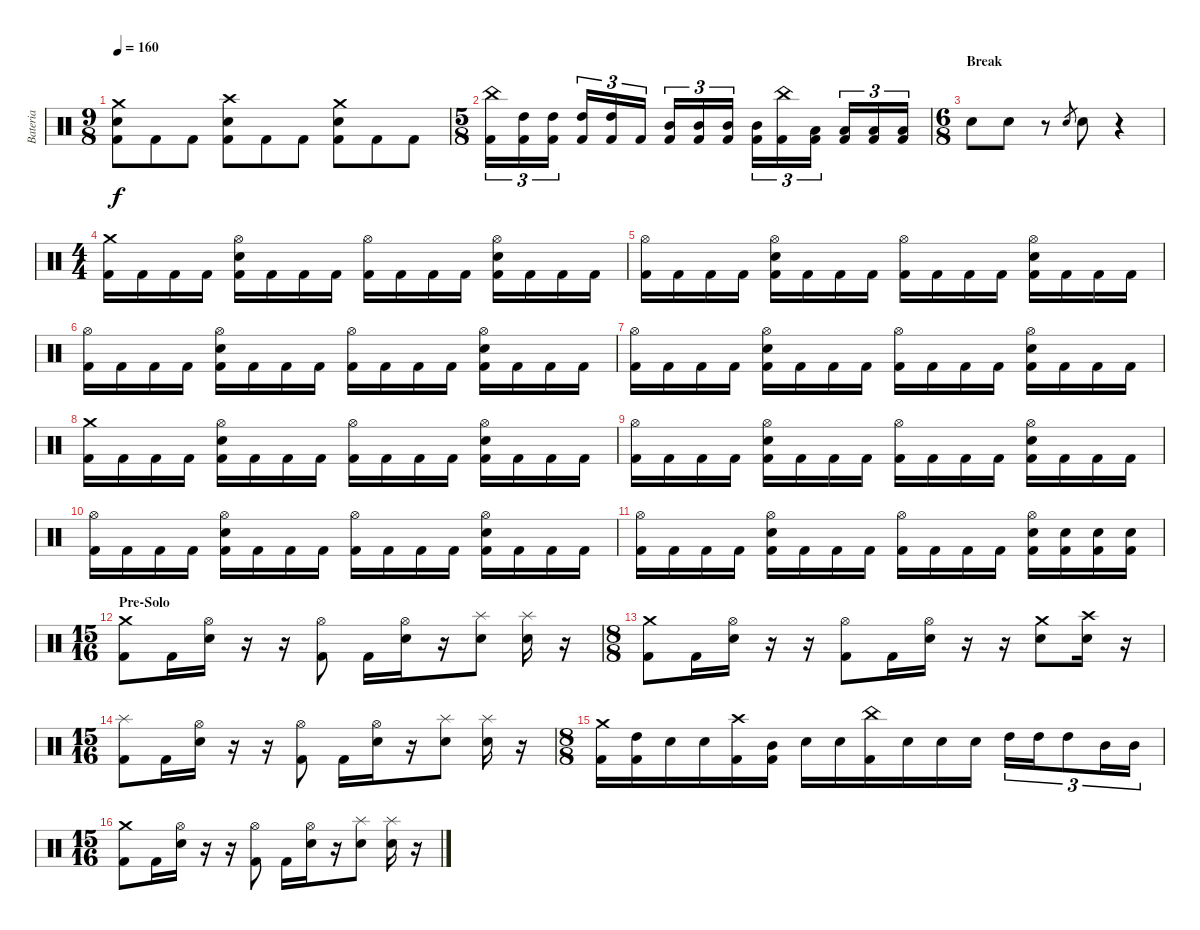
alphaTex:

\track ("Bateria" "Bateria") {instrument percussion}
\staff {score}
\articulation defaults
\ts (9 8)
\tempo 160
\clef neutral
\ks c
("Crash medium (hit)" "Electric Snare (hit)" "Kick (hit) 2").8{dy f} "Kick (hit) 2".8 "Kick (hit) 2".8 ("Crash high (hit)" "Electric Snare (hit)" "Kick (hit) 2").8 "Kick (hit) 2".8 "Kick (hit) 2".8 ("Crash medium (hit)" "Electric Snare (hit)" "Kick (hit) 2").8 "Kick (hit) 2".8 "Kick (hit) 2".8 |
\ts (5 8)
("China (hit)" "Kick (hit) 2").16{tu (3 2)} ("High Tom (hit)" "Kick (hit) 2").16{tu (3 2)} ("High Tom (hit)" "Kick (hit) 2").16{tu (3 2)} ("High Tom (hit)" "Kick (hit) 2").16{tu (3 2)} ("High Tom (hit)" "Kick (hit) 2").16{tu (3 2)} "Kick (hit) 2".16{tu (3 2)} ("Mid Tom (hit)" "Kick (hit) 2").16{tu (3 2)} ("Mid Tom (hit)" "Kick (hit) 2").16{tu (3 2)} ("Mid Tom (hit)" "Kick (hit) 2").16{tu (3 2)} ("Mid Tom (hit)" "Kick (hit) 2").16{tu (3 2)} ("China (hit)" "Kick (hit) 2").16{tu (3 2)} ("Low Tom (hit)" "Kick (hit) 2").16{tu (3 2)} ("Low Tom (hit)" "Kick (hit) 2").16{tu (3 2)} ("Low Tom (hit)" "Kick (hit) 2").16{tu (3 2)} ("Low Tom (hit)" "Kick (hit) 2").16{tu (3 2)} |
\ts (6 8)
\section ("" "Break")
"Electric Snare (hit)".8 "Electric Snare (hit)".8 r.8 "Electric Snare (hit)".8{gr} "Electric Snare (hit)".8 r.4 |
\ts (4 4)
("Crash medium (hit)" "Kick (hit) 2").16 "Kick (hit) 2".16 "Kick (hit) 2".16 "Kick (hit) 2".16 ("Hi-Hat (open)" "Electric Snare (hit)" "Kick (hit) 2").16 "Kick (hit) 2".16 "Kick (hit) 2".16 "Kick (hit) 2".16 ("Hi-Hat (open)" "Kick (hit) 2").16 "Kick (hit) 2".16 "Kick (hit) 2".16 "Kick (hit) 2".16 ("Hi-Hat (open)" "Electric Snare (hit)" "Kick (hit) 2").16 "Kick (hit) 2".16 "Kick (hit) 2".16 "Kick (hit) 2".16 |
("Hi-Hat (open)" "Kick (hit) 2").16 "Kick (hit) 2".16 "Kick (hit) 2".16 "Kick (hit) 2".16 ("Hi-Hat (open)" "Electric Snare (hit)" "Kick (hit) 2").16 "Kick (hit) 2".16 "Kick (hit) 2".16 "Kick (hit) 2".16 ("Hi-Hat (open)" "Kick (hit) 2").16 "Kick (hit) 2".16 "Kick (hit) 2".16 "Kick (hit) 2".16 ("Hi-Hat (open)" "Electric Snare (hit)" "Kick (hit) 2").16 "Kick (hit) 2".16 "Kick (hit) 2".16 "Kick (hit) 2".16 |
("Hi-Hat (open)" "Kick (hit) 2").16 "Kick (hit) 2".16 "Kick (hit) 2".16 "Kick (hit) 2".16 ("Hi-Hat (open)" "Electric Snare (hit)" "Kick (hit) 2").16 "Kick (hit) 2".16 "Kick (hit) 2".16 "Kick (hit) 2".16 ("Hi-Hat (open)" "Kick (hit) 2").16 "Kick (hit) 2".16 "Kick (hit) 2".16 "Kick (hit) 2".16 ("Hi-Hat (open)" "Electric Snare (hit)" "Kick (hit) 2").16 "Kick (hit) 2".16 "Kick (hit) 2".16 "Kick (hit) 2".16 |
("Hi-Hat (open)" "Kick (hit) 2").16 "Kick (hit) 2".16 "Kick (hit) 2".16 "Kick (hit) 2".16 ("Hi-Hat (open)" "Electric Snare (hit)" "Kick (hit) 2").16 "Kick (hit) 2".16 "Kick (hit) 2".16 "Kick (hit) 2".16 ("Hi-Hat (open)" "Kick (hit) 2").16 "Kick (hit) 2".16 "Kick (hit) 2".16 "Kick (hit) 2".16 ("Hi-Hat (open)" "Electric Snare (hit)" "Kick (hit) 2").16 "Kick (hit) 2".16 "Kick (hit) 2".16 "Kick (hit) 2".16 |
("Crash medium (hit)" "Kick (hit) 2").16 "Kick (hit) 2".16 "Kick (hit) 2".16 "Kick (hit) 2".16 ("Hi-Hat (open)" "Electric Snare (hit)" "Kick (hit) 2").16 "Kick (hit) 2".16 "Kick (hit) 2".16 "Kick (hit) 2".16 ("Hi-Hat (open)" "Kick (hit) 2").16 "Kick (hit) 2".16 "Kick (hit) 2".16 "Kick (hit) 2".16 ("Hi-Hat (open)" "Electric Snare (hit)" "Kick (hit) 2").16 "Kick (hit) 2".16 "Kick (hit) 2".16 "Kick (hit) 2".16 |
("Hi-Hat (open)" "Kick (hit) 2").16 "Kick (hit) 2".16 "Kick (hit) 2".16 "Kick (hit) 2".16 ("Hi-Hat (open)" "Electric Snare (hit)" "Kick (hit) 2").16 "Kick (hit) 2".16 "Kick (hit) 2".16 "Kick (hit) 2".16 ("Hi-Hat (open)" "Kick (hit) 2").16 "Kick (hit) 2".16 "Kick (hit) 2".16 "Kick (hit) 2".16 ("Hi-Hat (open)" "Electric Snare (hit)" "Kick (hit) 2").16 "Kick (hit) 2".16 "Kick (hit) 2".16 "Kick (hit) 2".16 |
("Hi-Hat (open)" "Kick (hit) 2").16 "Kick (hit) 2".16 "Kick (hit) 2".16 "Kick (hit) 2".16 ("Hi-Hat (open)" "Electric Snare (hit)" "Kick (hit) 2").16 "Kick (hit) 2".16 "Kick (hit) 2".16 "Kick (hit) 2".16 ("Hi-Hat (open)" "Kick (hit) 2").16 "Kick (hit) 2".16 "Kick (hit) 2".16 "Kick (hit) 2".16 ("Hi-Hat (open)" "Electric Snare (hit)" "Kick (hit) 2").16 "Kick (hit) 2".16 "Kick (hit) 2".16 "Kick (hit) 2".16 |
("Hi-Hat (open)" "Kick (hit) 2").16 "Kick (hit) 2".16 "Kick (hit) 2".16 "Kick (hit) 2".16 ("Hi-Hat (open)" "Electric Snare (hit)" "Kick (hit) 2").16 "Kick (hit) 2".16 "Kick (hit) 2".16 "Kick (hit) 2".16 ("Hi-Hat (open)" "Kick (hit) 2").16 "Kick (hit) 2".16 "Kick (hit) 2".16 "Kick (hit) 2".16 ("Hi-Hat (open)" "Electric Snare (hit)" "Kick (hit) 2").16 ("Electric Snare (hit)" "Kick (hit) 2").16 ("Electric Snare (hit)" "Kick (hit) 2").16 ("Electric Snare (hit)" "Kick (hit) 2").16 |
\ts (15 16)
\section ("" "Pre-Solo")
("Crash medium (hit)" "Kick (hit) 2").8 "Kick (hit) 2".16 ("Hi-Hat (open)" "Electric Snare (hit)").16 r.16 r.16 ("Hi-Hat (open)" "Kick (hit) 2").8 "Kick (hit) 2".16 ("Hi-Hat (open)" "Electric Snare (hit)").16 r.16 ("Splash (hit)" "Electric Snare (hit)").8 ("Splash (hit)" "Electric Snare (hit)").16 r.16 |
\ts (8 8)
("Crash medium (hit)" "Kick (hit) 2").8 "Kick (hit) 2".16 ("Hi-Hat (open)" "Electric Snare (hit)").16 r.16 r.16 ("Hi-Hat (open)" "Kick (hit) 2").8 "Kick (hit) 2".16 ("Hi-Hat (open)" "Electric Snare (hit)").16 r.16 r.16 ("Crash medium (hit)" "Electric Snare (hit)").8 ("Crash high (hit)" "Electric Snare (hit)").16 r.16 |
\ts (15 16)
("Splash (hit)" "Kick (hit) 2").8 "Kick (hit) 2".16 ("Hi-Hat (open)" "Electric Snare (hit)").16 r.16 r.16 ("Hi-Hat (open)" "Kick (hit) 2").8 "Kick (hit) 2".16 ("Hi-Hat (open)" "Electric Snare (hit)").16 r.16 ("Splash (hit)" "Electric Snare (hit)").8 ("Splash (hit)" "Electric Snare (hit)").16 r.16 |
\ts (8 8)
("Crash medium (hit)" "Kick (hit) 2").16 ("High Tom (hit)" "Kick (hit) 2").16 "Electric Snare (hit)".16 "Electric Snare (hit)".16 ("Crash high (hit)" "Kick (hit) 2").16 ("Mid Tom (hit)" "Kick (hit) 2").16 "Electric Snare (hit)".16 "Electric Snare (hit)".16 ("China (hit)" "Kick (hit) 2").16 "Electric Snare (hit)".16 "Electric Snare (hit)".16 "Electric Snare (hit)".16 "High Tom (hit)".16{tu (3 2)} "High Tom (hit)".16{tu (3 2)} "High Tom (hit)".8{tu (3 2)} "Mid Tom (hit)".16{tu (3 2)} "Mid Tom (hit)".16{tu (3 2)} |
\ts (15 16)
("Crash medium (hit)" "Kick (hit) 2").8 "Kick (hit) 2".16 ("Hi-Hat (open)" "Electric Snare (hit)").16 r.16 r.16 ("Hi-Hat (open)" "Kick (hit) 2").8 "Kick (hit) 2".16 ("Hi-Hat (open)" "Electric Snare (hit)").16 r.16 ("Splash (hit)" "Electric Snare (hit)").8 ("Splash (hit)" "Electric Snare (hit)").16 r.16
